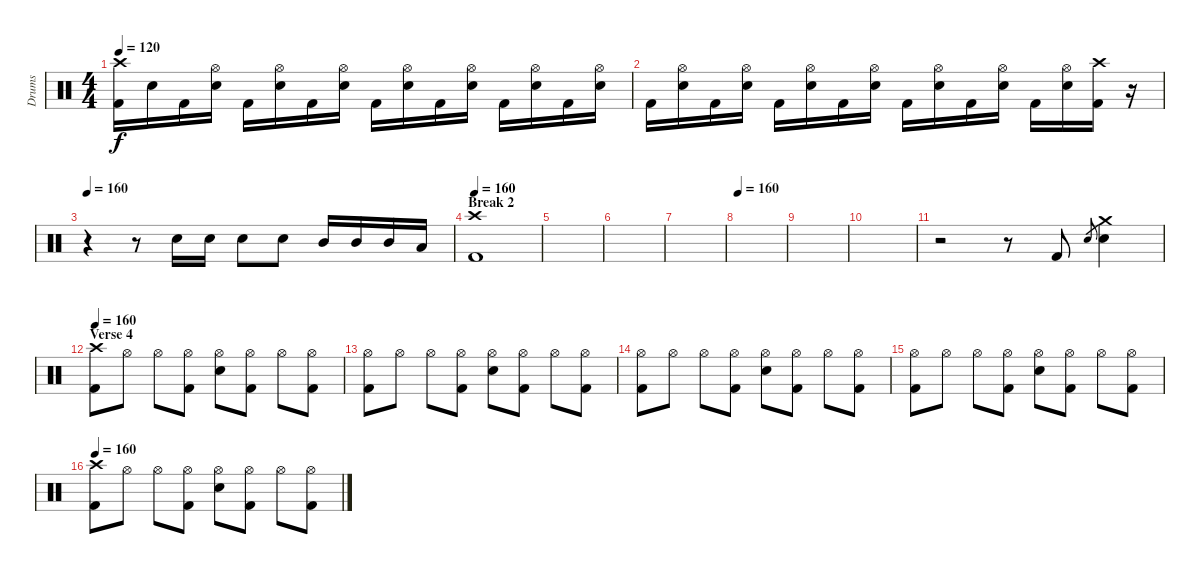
\track ("Drums" "Drums") {instrument percussion}
\staff {score}
\articulation defaults
\ts (4 4)
\tempo 120
\clef neutral
\ks c
("Crash high (hit)" "Kick (hit) 2").16{dy f} "Electric Snare (hit)".16 "Kick (hit) 2".16 ("Hi-Hat (open)" "Electric Snare (hit)").16 "Kick (hit) 2".16 ("Hi-Hat (open)" "Electric Snare (hit)").16 "Kick (hit) 2".16 ("Hi-Hat (open)" "Electric Snare (hit)").16 "Kick (hit) 2".16 ("Hi-Hat (open)" "Electric Snare (hit)").16 "Kick (hit) 2".16 ("Hi-Hat (open)" "Electric Snare (hit)").16 "Kick (hit) 2".16 ("Hi-Hat (open)" "Electric Snare (hit)").16 "Kick (hit) 2".16 ("Hi-Hat (open)" "Electric Snare (hit)").16 |
"Kick (hit) 2".16 ("Hi-Hat (open)" "Electric Snare (hit)").16 "Kick (hit) 2".16 ("Hi-Hat (open)" "Electric Snare (hit)").16 "Kick (hit) 2".16 ("Hi-Hat (open)" "Electric Snare (hit)").16 "Kick (hit) 2".16 ("Hi-Hat (open)" "Electric Snare (hit)").16 "Kick (hit) 2".16 ("Hi-Hat (open)" "Electric Snare (hit)").16 "Kick (hit) 2".16 ("Hi-Hat (open)" "Electric Snare (hit)").16 "Kick (hit) 2".16 ("Hi-Hat (open)" "Electric Snare (hit)").16 ("Crash high (hit)" "Kick (hit) 2").16 r.16 |
\tempo 160
r.4 r.8 "Electric Snare (hit)".16 "Electric Snare (hit)".16 "Electric Snare (hit)".8 "Electric Snare (hit)".8 "Mid Tom (hit)".16 "Mid Tom (hit)".16 "Mid Tom (hit)".16 "Low Tom (hit)".16 |
\section ("" "Break 2")
\tempo 160
("Crash high (hit)" "Kick (hit) 2").1 |
|
|
|
\tempo 160
|
|
|
r.2 r.8 "Kick (hit) 2".8 "Electric Snare (hit)".8{gr} ("Crash medium (hit)" "Electric Snare (hit)").4 |
\section ("" "Verse 4")
\tempo 160
("Crash high (hit)" "Kick (hit) 2").8 "Hi-Hat (open)".8 "Hi-Hat (open)".8 ("Hi-Hat (open)" "Kick (hit) 2").8 ("Hi-Hat (open)" "Electric Snare (hit)").8 ("Hi-Hat (open)" "Kick (hit) 2").8 "Hi-Hat (open)".8 ("Hi-Hat (open)" "Kick (hit) 2").8 |
("Hi-Hat (open)" "Kick (hit) 2").8 "Hi-Hat (open)".8 "Hi-Hat (open)".8 ("Hi-Hat (open)" "Kick (hit) 2").8 ("Hi-Hat (open)" "Electric Snare (hit)").8 ("Hi-Hat (open)" "Kick (hit) 2").8 "Hi-Hat (open)".8 ("Hi-Hat (open)" "Kick (hit) 2").8 |
("Hi-Hat (open)" "Kick (hit) 2").8 "Hi-Hat (open)".8 "Hi-Hat (open)".8 ("Hi-Hat (open)" "Kick (hit) 2").8 ("Hi-Hat (open)" "Electric Snare (hit)").8 ("Hi-Hat (open)" "Kick (hit) 2").8 "Hi-Hat (open)".8 ("Hi-Hat (open)" "Kick (hit) 2").8 |
("Hi-Hat (open)" "Kick (hit) 2").8 "Hi-Hat (open)".8 "Hi-Hat (open)".8 ("Hi-Hat (open)" "Kick (hit) 2").8 ("Hi-Hat (open)" "Electric Snare (hit)").8 ("Hi-Hat (open)" "Kick (hit) 2").8 "Hi-Hat (open)".8 ("Hi-Hat (open)" "Kick (hit) 2").8 |
\tempo 160
("Crash high (hit)" "Kick (hit) 2").8 "Hi-Hat (open)".8 "Hi-Hat (open)".8 ("Hi-Hat (open)" "Kick (hit) 2").8 ("Hi-Hat (open)" "Electric Snare (hit)").8 ("Hi-Hat (open)" "Kick (hit) 2").8 "Hi-Hat (open)".8 ("Hi-Hat (open)" "Kick (hit) 2").8
